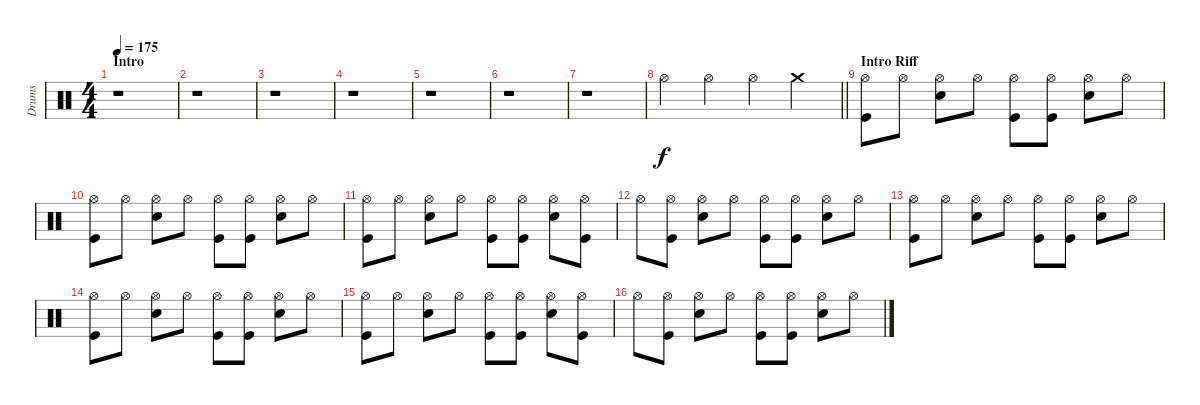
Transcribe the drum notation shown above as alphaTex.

\track ("Drums" "Drums") {instrument percussion}
\staff {score}
\articulation defaults
\ts (4 4)
\section ("" "Intro")
\tempo 175
\clef neutral
\ks c
r.1{dy f} |
r.1 |
r.1 |
r.1 |
r.1 |
r.1 |
r.1 |
\barLineRight lightlight "Hi-Hat (open)".4 "Hi-Hat (open)".4 "Hi-Hat (open)".4 "Crash medium (hit)".4
|
\section ("" "Intro Riff")
("Hi-Hat (open)" "Kick (hit)").8 "Hi-Hat (open)".8 ("Hi-Hat (open)" "Snare (hit) 2").8 "Hi-Hat (open)".8 ("Hi-Hat (open)" "Kick (hit)").8 ("Hi-Hat (open)" "Kick (hit)").8 ("Hi-Hat (open)" "Snare (hit) 2").8 "Hi-Hat (open)".8 |
("Hi-Hat (open)" "Kick (hit)").8 "Hi-Hat (open)".8 ("Hi-Hat (open)" "Snare (hit) 2").8 "Hi-Hat (open)".8 ("Hi-Hat (open)" "Kick (hit)").8 ("Hi-Hat (open)" "Kick (hit)").8 ("Hi-Hat (open)" "Snare (hit) 2").8 "Hi-Hat (open)".8 |
("Hi-Hat (open)" "Kick (hit)").8 "Hi-Hat (open)".8 ("Hi-Hat (open)" "Snare (hit) 2").8 "Hi-Hat (open)".8 ("Hi-Hat (open)" "Kick (hit)").8 ("Hi-Hat (open)" "Kick (hit)").8 ("Hi-Hat (open)" "Snare (hit) 2").8 ("Hi-Hat (open)" "Kick (hit)").8 |
"Hi-Hat (open)".8 ("Hi-Hat (open)" "Kick (hit)").8 ("Hi-Hat (open)" "Snare (hit) 2").8 "Hi-Hat (open)".8 ("Hi-Hat (open)" "Kick (hit)").8 ("Hi-Hat (open)" "Kick (hit)").8 ("Hi-Hat (open)" "Snare (hit) 2").8 "Hi-Hat (open)".8 |
("Hi-Hat (open)" "Kick (hit)").8 "Hi-Hat (open)".8 ("Hi-Hat (open)" "Snare (hit) 2").8 "Hi-Hat (open)".8 ("Hi-Hat (open)" "Kick (hit)").8 ("Hi-Hat (open)" "Kick (hit)").8 ("Hi-Hat (open)" "Snare (hit) 2").8 "Hi-Hat (open)".8 |
("Hi-Hat (open)" "Kick (hit)").8 "Hi-Hat (open)".8 ("Hi-Hat (open)" "Snare (hit) 2").8 "Hi-Hat (open)".8 ("Hi-Hat (open)" "Kick (hit)").8 ("Hi-Hat (open)" "Kick (hit)").8 ("Hi-Hat (open)" "Snare (hit) 2").8 "Hi-Hat (open)".8 |
("Hi-Hat (open)" "Kick (hit)").8 "Hi-Hat (open)".8 ("Hi-Hat (open)" "Snare (hit) 2").8 "Hi-Hat (open)".8 ("Hi-Hat (open)" "Kick (hit)").8 ("Hi-Hat (open)" "Kick (hit)").8 ("Hi-Hat (open)" "Snare (hit) 2").8 ("Hi-Hat (open)" "Kick (hit)").8 |
"Hi-Hat (open)".8 ("Hi-Hat (open)" "Kick (hit)").8 ("Hi-Hat (open)" "Snare (hit) 2").8 "Hi-Hat (open)".8 ("Hi-Hat (open)" "Kick (hit)").8 ("Hi-Hat (open)" "Kick (hit)").8 ("Hi-Hat (open)" "Snare (hit) 2").8 "Hi-Hat (open)".8
